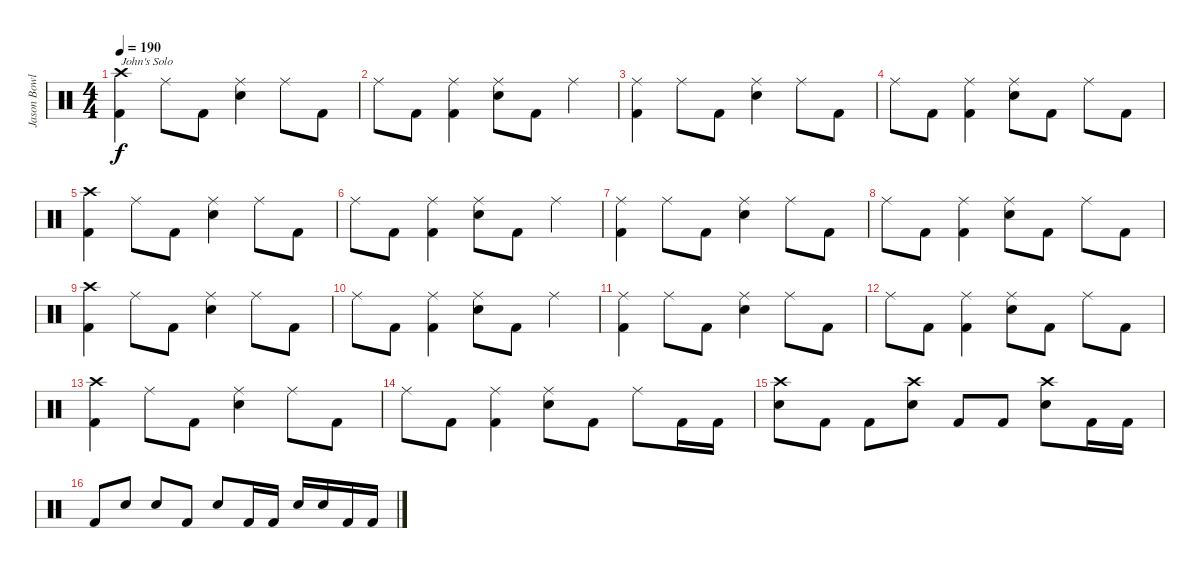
\track ("Jason Bowld" "Jason Bowl") {instrument percussion}
\staff {score}
\articulation defaults
\ts (4 4)
\tempo 190
\clef neutral
\ks c
("Crash high (hit)" "Kick (hit) 2").4{txt "John's Solo" dy f} "Ride (middle)".8 "Kick (hit) 2".8 ("Ride (middle)" "Snare (hit) 2").4 "Ride (middle)".8 "Kick (hit) 2".8 |
"Ride (middle)".8 "Kick (hit) 2".8 ("Ride (middle)" "Kick (hit) 2").4 ("Ride (middle)" "Snare (hit) 2").8 "Kick (hit) 2".8 "Ride (middle)".4 |
("Ride (middle)" "Kick (hit) 2").4 "Ride (middle)".8 "Kick (hit) 2".8 ("Ride (middle)" "Snare (hit) 2").4 "Ride (middle)".8 "Kick (hit) 2".8 |
"Ride (middle)".8 "Kick (hit) 2".8 ("Ride (middle)" "Kick (hit) 2").4 ("Ride (middle)" "Snare (hit) 2").8 "Kick (hit) 2".8 "Ride (middle)".8 "Kick (hit) 2".8 |
("Crash high (hit)" "Kick (hit) 2").4 "Ride (middle)".8 "Kick (hit) 2".8 ("Ride (middle)" "Snare (hit) 2").4 "Ride (middle)".8 "Kick (hit) 2".8 |
"Ride (middle)".8 "Kick (hit) 2".8 ("Ride (middle)" "Kick (hit) 2").4 ("Ride (middle)" "Snare (hit) 2").8 "Kick (hit) 2".8 "Ride (middle)".4 |
("Ride (middle)" "Kick (hit) 2").4 "Ride (middle)".8 "Kick (hit) 2".8 ("Ride (middle)" "Snare (hit) 2").4 "Ride (middle)".8 "Kick (hit) 2".8 |
"Ride (middle)".8 "Kick (hit) 2".8 ("Ride (middle)" "Kick (hit) 2").4 ("Ride (middle)" "Snare (hit) 2").8 "Kick (hit) 2".8 "Ride (middle)".8 "Kick (hit) 2".8 |
("Crash high (hit)" "Kick (hit) 2").4 "Ride (middle)".8 "Kick (hit) 2".8 ("Ride (middle)" "Snare (hit) 2").4 "Ride (middle)".8 "Kick (hit) 2".8 |
"Ride (middle)".8 "Kick (hit) 2".8 ("Ride (middle)" "Kick (hit) 2").4 ("Ride (middle)" "Snare (hit) 2").8 "Kick (hit) 2".8 "Ride (middle)".4 |
("Ride (middle)" "Kick (hit) 2").4 "Ride (middle)".8 "Kick (hit) 2".8 ("Ride (middle)" "Snare (hit) 2").4 "Ride (middle)".8 "Kick (hit) 2".8 |
"Ride (middle)".8 "Kick (hit) 2".8 ("Ride (middle)" "Kick (hit) 2").4 ("Ride (middle)" "Snare (hit) 2").8 "Kick (hit) 2".8 "Ride (middle)".8 "Kick (hit) 2".8 |
("Crash high (hit)" "Kick (hit) 2").4 "Ride (middle)".8 "Kick (hit) 2".8 ("Ride (middle)" "Snare (hit) 2").4 "Ride (middle)".8 "Kick (hit) 2".8 |
"Ride (middle)".8 "Kick (hit) 2".8 ("Ride (middle)" "Kick (hit) 2").4 ("Ride (middle)" "Snare (hit) 2").8 "Kick (hit) 2".8 "Ride (middle)".8 "Kick (hit) 2".16 "Kick (hit) 2".16 |
("Crash high (hit)" "Snare (hit) 2").8 "Kick (hit) 2".8 "Kick (hit) 2".8 ("Crash high (hit)" "Snare (hit) 2").8 "Kick (hit) 2".8 "Kick (hit) 2".8 ("Crash high (hit)" "Snare (hit) 2").8 "Kick (hit) 2".16 "Kick (hit) 2".16 |
"Kick (hit) 2".8 "Snare (hit) 2".8 "Snare (hit) 2".8 "Kick (hit) 2".8 "Snare (hit) 2".8 "Kick (hit) 2".16 "Kick (hit) 2".16 "Snare (hit) 2".16 "Snare (hit) 2".16 "Kick (hit) 2".16 "Kick (hit) 2".16
